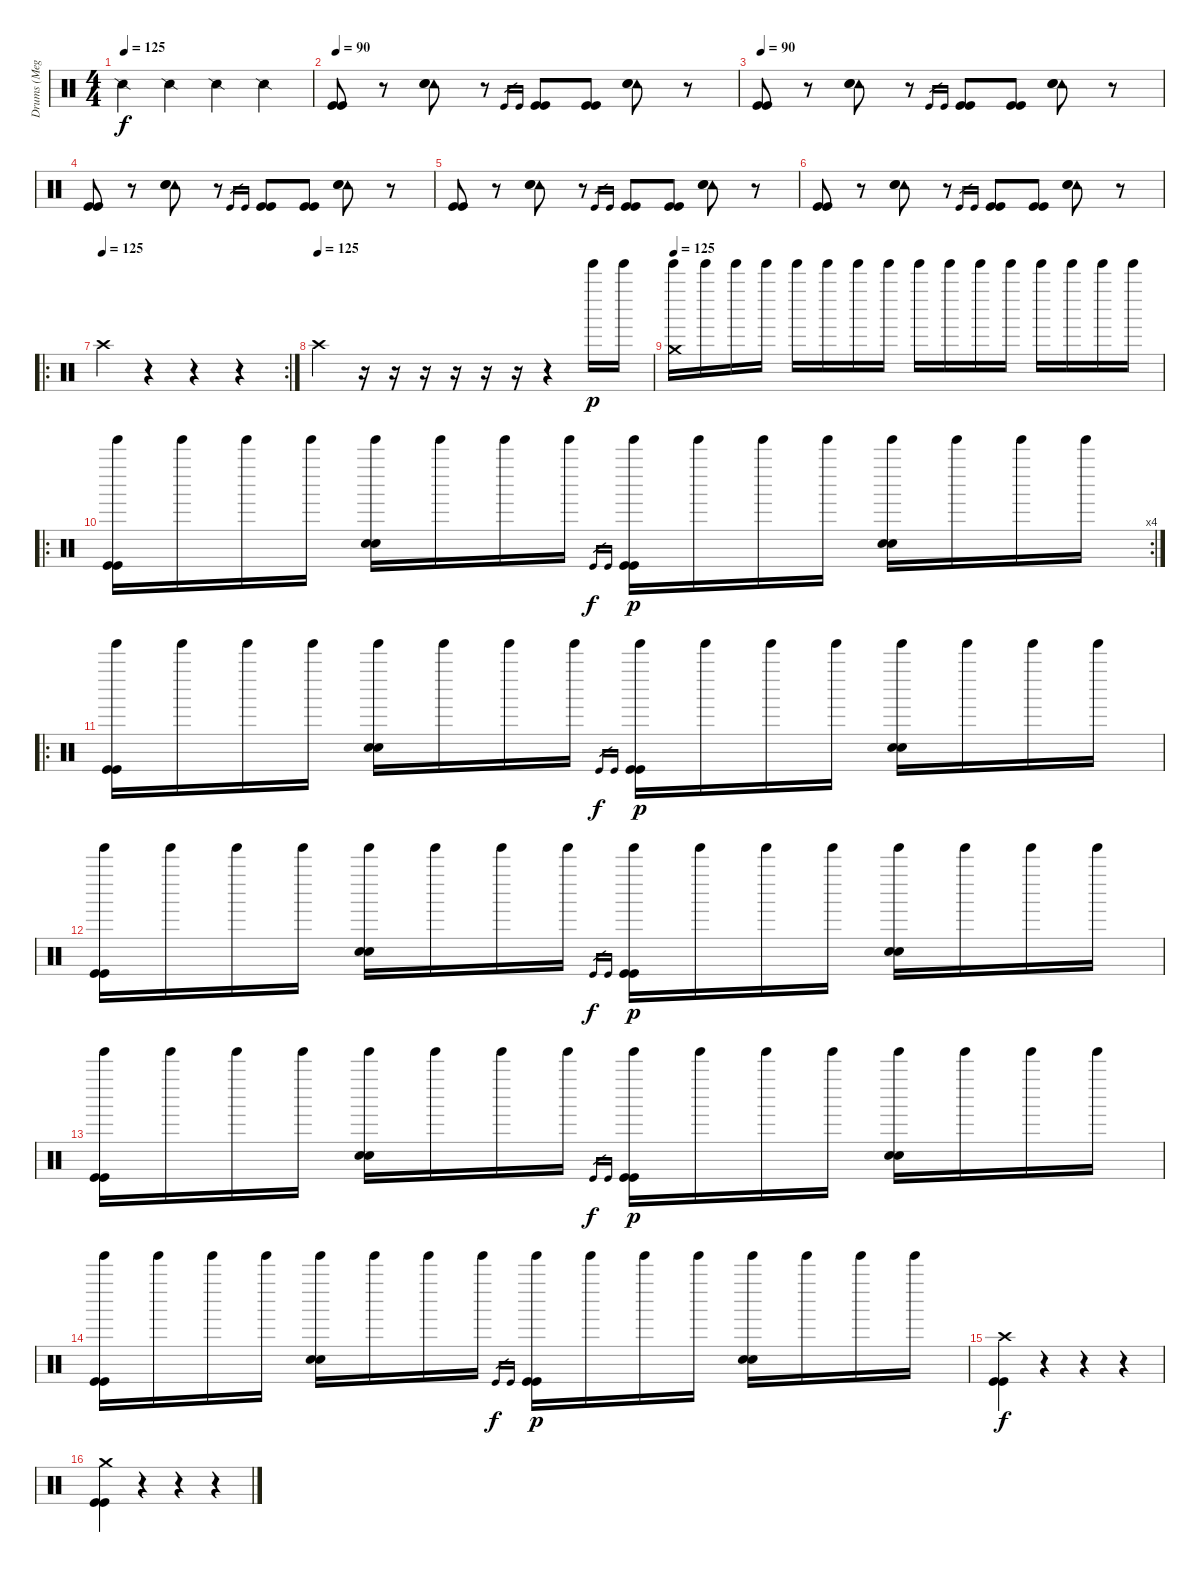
\track ("Drums (Meg)" "Drums (Meg") {instrument percussion}
\staff {score}
\articulation defaults
\ts (4 4)
\tempo 125
\clef neutral
\ks c "Snare (side stick) 2".4{dy f} "Snare (side stick) 2".4 "Snare (side stick) 2".4 "Snare (side stick) 2".4
|
\tempo 90
("Kick (hit)" "Kick (hit)").8 r.8 ("Tambourine (hit)" "Snare (hit) 2" "Snare (hit) 2").8 r.8 "Kick (hit)".16{gr} "Kick (hit)".16{gr} ("Kick (hit)" "Kick (hit)").8 ("Kick (hit)" "Kick (hit)").8 ("Tambourine (hit)" "Snare (hit) 2" "Snare (hit) 2").8 r.8 |
\tempo 90
("Kick (hit)" "Kick (hit)").8 r.8 ("Tambourine (hit)" "Snare (hit) 2" "Snare (hit) 2").8 r.8 "Kick (hit)".16{gr} "Kick (hit)".16{gr} ("Kick (hit)" "Kick (hit)").8 ("Kick (hit)" "Kick (hit)").8 ("Tambourine (hit)" "Snare (hit) 2" "Snare (hit) 2").8 r.8 |
("Kick (hit)" "Kick (hit)").8 r.8 ("Tambourine (hit)" "Snare (hit) 2" "Snare (hit) 2").8 r.8 "Kick (hit)".16{gr} "Kick (hit)".16{gr} ("Kick (hit)" "Kick (hit)").8 ("Kick (hit)" "Kick (hit)").8 ("Tambourine (hit)" "Snare (hit) 2" "Snare (hit) 2").8 r.8 |
("Kick (hit)" "Kick (hit)").8 r.8 ("Tambourine (hit)" "Snare (hit) 2" "Snare (hit) 2").8 r.8 "Kick (hit)".16{gr} "Kick (hit)".16{gr} ("Kick (hit)" "Kick (hit)").8 ("Kick (hit)" "Kick (hit)").8 ("Tambourine (hit)" "Snare (hit) 2" "Snare (hit) 2").8 r.8 |
("Kick (hit)" "Kick (hit)").8 r.8 ("Tambourine (hit)" "Snare (hit) 2" "Snare (hit) 2").8 r.8 "Kick (hit)".16{gr} "Kick (hit)".16{gr} ("Kick (hit)" "Kick (hit)").8 ("Kick (hit)" "Kick (hit)").8 ("Tambourine (hit)" "Snare (hit) 2" "Snare (hit) 2").8 r.8 |
\ro
\rc 2
\tempo (125)
"Crash high (hit)".4 r.4 r.4 r.4 |
\tempo (125)
"Crash high (hit)".4 r.16 r.16 r.16 r.16 r.16 r.16 r.4 "Tinkle Bell (hit)".16{dy p} "Tinkle Bell (hit)".16 |
\tempo 125
("Tinkle Bell (hit)" "Crash medium (hit)").16 "Tinkle Bell (hit)".16 "Tinkle Bell (hit)".16 "Tinkle Bell (hit)".16 "Tinkle Bell (hit)".16 "Tinkle Bell (hit)".16 "Tinkle Bell (hit)".16 "Tinkle Bell (hit)".16 "Tinkle Bell (hit)".16 "Tinkle Bell (hit)".16 "Tinkle Bell (hit)".16 "Tinkle Bell (hit)".16 "Tinkle Bell (hit)".16 "Tinkle Bell (hit)".16 "Tinkle Bell (hit)".16 "Tinkle Bell (hit)".16 |
\ro
\rc 4
("Tinkle Bell (hit)" "Kick (hit)" "Kick (hit)").16 "Tinkle Bell (hit)".16 "Tinkle Bell (hit)".16 "Tinkle Bell (hit)".16 ("Tinkle Bell (hit)" "Snare (hit) 2" "Snare (hit) 2").16 "Tinkle Bell (hit)".16 "Tinkle Bell (hit)".16 "Tinkle Bell (hit)".16 "Kick (hit)".16{gr dy f} "Kick (hit)".16{gr} ("Tinkle Bell (hit)" "Kick (hit)" "Kick (hit)").16{dy p} "Tinkle Bell (hit)".16 "Tinkle Bell (hit)".16 "Tinkle Bell (hit)".16 ("Tinkle Bell (hit)" "Snare (hit) 2" "Snare (hit) 2").16 "Tinkle Bell (hit)".16 "Tinkle Bell (hit)".16 "Tinkle Bell (hit)".16 |
\ro
("Tinkle Bell (hit)" "Kick (hit)" "Kick (hit)").16 "Tinkle Bell (hit)".16 "Tinkle Bell (hit)".16 "Tinkle Bell (hit)".16 ("Tinkle Bell (hit)" "Snare (hit) 2" "Snare (hit) 2").16 "Tinkle Bell (hit)".16 "Tinkle Bell (hit)".16 "Tinkle Bell (hit)".16 "Kick (hit)".16{gr dy f} "Kick (hit)".16{gr} ("Tinkle Bell (hit)" "Kick (hit)" "Kick (hit)").16{dy p} "Tinkle Bell (hit)".16 "Tinkle Bell (hit)".16 "Tinkle Bell (hit)".16 ("Tinkle Bell (hit)" "Snare (hit) 2" "Snare (hit) 2").16 "Tinkle Bell (hit)".16 "Tinkle Bell (hit)".16 "Tinkle Bell (hit)".16 |
("Tinkle Bell (hit)" "Kick (hit)" "Kick (hit)").16 "Tinkle Bell (hit)".16 "Tinkle Bell (hit)".16 "Tinkle Bell (hit)".16 ("Tinkle Bell (hit)" "Snare (hit) 2" "Snare (hit) 2").16 "Tinkle Bell (hit)".16 "Tinkle Bell (hit)".16 "Tinkle Bell (hit)".16 "Kick (hit)".16{gr dy f} "Kick (hit)".16{gr} ("Tinkle Bell (hit)" "Kick (hit)" "Kick (hit)").16{dy p} "Tinkle Bell (hit)".16 "Tinkle Bell (hit)".16 "Tinkle Bell (hit)".16 ("Tinkle Bell (hit)" "Snare (hit) 2" "Snare (hit) 2").16 "Tinkle Bell (hit)".16 "Tinkle Bell (hit)".16 "Tinkle Bell (hit)".16 |
("Tinkle Bell (hit)" "Kick (hit)" "Kick (hit)").16 "Tinkle Bell (hit)".16 "Tinkle Bell (hit)".16 "Tinkle Bell (hit)".16 ("Tinkle Bell (hit)" "Snare (hit) 2" "Snare (hit) 2").16 "Tinkle Bell (hit)".16 "Tinkle Bell (hit)".16 "Tinkle Bell (hit)".16 "Kick (hit)".16{gr dy f} "Kick (hit)".16{gr} ("Tinkle Bell (hit)" "Kick (hit)" "Kick (hit)").16{dy p} "Tinkle Bell (hit)".16 "Tinkle Bell (hit)".16 "Tinkle Bell (hit)".16 ("Tinkle Bell (hit)" "Snare (hit) 2" "Snare (hit) 2").16 "Tinkle Bell (hit)".16 "Tinkle Bell (hit)".16 "Tinkle Bell (hit)".16 |
("Tinkle Bell (hit)" "Kick (hit)" "Kick (hit)").16 "Tinkle Bell (hit)".16 "Tinkle Bell (hit)".16 "Tinkle Bell (hit)".16 ("Tinkle Bell (hit)" "Snare (hit) 2" "Snare (hit) 2").16 "Tinkle Bell (hit)".16 "Tinkle Bell (hit)".16 "Tinkle Bell (hit)".16 "Kick (hit)".16{gr dy f} "Kick (hit)".16{gr} ("Tinkle Bell (hit)" "Kick (hit)" "Kick (hit)").16{dy p} "Tinkle Bell (hit)".16 "Tinkle Bell (hit)".16 "Tinkle Bell (hit)".16 ("Tinkle Bell (hit)" "Snare (hit) 2" "Snare (hit) 2").16 "Tinkle Bell (hit)".16 "Tinkle Bell (hit)".16 "Tinkle Bell (hit)".16 |
("Crash high (hit)" "Kick (hit)" "Kick (hit)").4{dy f} r.4 r.4 r.4 |
("Crash medium (hit)" "Kick (hit)" "Kick (hit)").4 r.4 r.4 r.4
